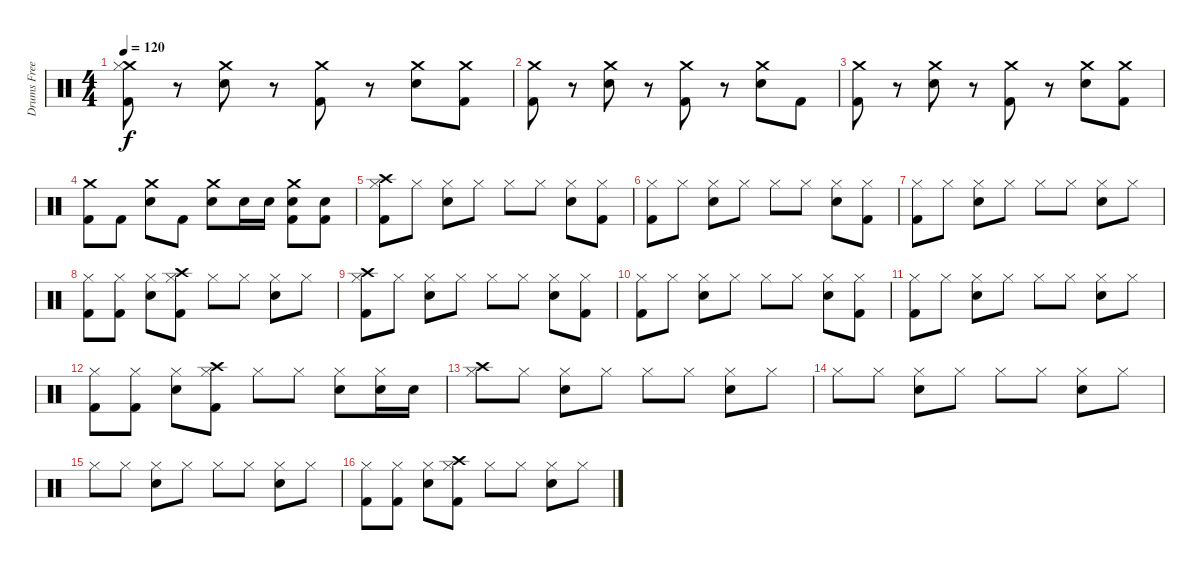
\track ("Drums Freese" "Drums Free") {instrument percussion}
\staff {score}
\articulation defaults
\ts (4 4)
\tempo 120
\clef neutral
\ks c
("Crash medium (hit)" "Hi-Hat (closed)" "Kick (hit) 2").8{dy f} r.8 ("Crash medium (hit)" "Snare (hit) 2").8 r.8 ("Crash medium (hit)" "Kick (hit) 2").8 r.8 ("Crash medium (hit)" "Snare (hit) 2").8 ("Crash medium (hit)" "Kick (hit) 2").8 |
("Crash medium (hit)" "Kick (hit) 2").8 r.8 ("Crash medium (hit)" "Snare (hit) 2").8 r.8 ("Crash medium (hit)" "Kick (hit) 2").8 r.8 ("Crash medium (hit)" "Snare (hit) 2").8 "Kick (hit) 2".8 |
("Crash medium (hit)" "Kick (hit) 2").8 r.8 ("Crash medium (hit)" "Snare (hit) 2").8 r.8 ("Crash medium (hit)" "Kick (hit) 2").8 r.8 ("Crash medium (hit)" "Snare (hit) 2").8 ("Crash medium (hit)" "Kick (hit) 2").8 |
("Crash medium (hit)" "Kick (hit) 2").8 "Kick (hit) 2".8 ("Crash medium (hit)" "Snare (hit) 2").8 "Kick (hit) 2".8 ("Crash medium (hit)" "Snare (hit) 2").8 "Snare (hit) 2".16 "Snare (hit) 2".16 ("Crash medium (hit)" "Snare (hit) 2" "Kick (hit) 2").8 ("Snare (hit) 2" "Kick (hit) 2").8 |
("Hi-Hat (closed)" "Crash high (hit)" "Kick (hit) 2").8 "Hi-Hat (closed)".8 ("Hi-Hat (closed)" "Snare (hit) 2").8 "Hi-Hat (closed)".8 "Hi-Hat (closed)".8 "Hi-Hat (closed)".8 ("Hi-Hat (closed)" "Snare (hit) 2").8 ("Hi-Hat (closed)" "Kick (hit) 2").8 |
("Hi-Hat (closed)" "Kick (hit) 2").8 "Hi-Hat (closed)".8 ("Hi-Hat (closed)" "Snare (hit) 2").8 "Hi-Hat (closed)".8 "Hi-Hat (closed)".8 "Hi-Hat (closed)".8 ("Hi-Hat (closed)" "Snare (hit) 2").8 ("Hi-Hat (closed)" "Kick (hit) 2").8 |
("Hi-Hat (closed)" "Kick (hit) 2").8 "Hi-Hat (closed)".8 ("Hi-Hat (closed)" "Snare (hit) 2").8 "Hi-Hat (closed)".8 "Hi-Hat (closed)".8 "Hi-Hat (closed)".8 ("Hi-Hat (closed)" "Snare (hit) 2").8 "Hi-Hat (closed)".8 |
("Hi-Hat (closed)" "Kick (hit) 2").8 ("Hi-Hat (closed)" "Kick (hit) 2").8 ("Hi-Hat (closed)" "Snare (hit) 2").8 ("Hi-Hat (closed)" "Crash high (hit)" "Kick (hit) 2").8 "Hi-Hat (closed)".8 "Hi-Hat (closed)".8 ("Hi-Hat (closed)" "Snare (hit) 2").8 "Hi-Hat (closed)".8 |
("Hi-Hat (closed)" "Crash high (hit)" "Kick (hit) 2").8 "Hi-Hat (closed)".8 ("Hi-Hat (closed)" "Snare (hit) 2").8 "Hi-Hat (closed)".8 "Hi-Hat (closed)".8 "Hi-Hat (closed)".8 ("Hi-Hat (closed)" "Snare (hit) 2").8 ("Hi-Hat (closed)" "Kick (hit) 2").8 |
("Hi-Hat (closed)" "Kick (hit) 2").8 "Hi-Hat (closed)".8 ("Hi-Hat (closed)" "Snare (hit) 2").8 "Hi-Hat (closed)".8 "Hi-Hat (closed)".8 "Hi-Hat (closed)".8 ("Hi-Hat (closed)" "Snare (hit) 2").8 ("Hi-Hat (closed)" "Kick (hit) 2").8 |
("Hi-Hat (closed)" "Kick (hit) 2").8 "Hi-Hat (closed)".8 ("Hi-Hat (closed)" "Snare (hit) 2").8 "Hi-Hat (closed)".8 "Hi-Hat (closed)".8 "Hi-Hat (closed)".8 ("Hi-Hat (closed)" "Snare (hit) 2").8 "Hi-Hat (closed)".8 |
("Hi-Hat (closed)" "Kick (hit) 2").8 ("Hi-Hat (closed)" "Kick (hit) 2").8 ("Hi-Hat (closed)" "Snare (hit) 2").8 ("Hi-Hat (closed)" "Crash high (hit)" "Kick (hit) 2").8 "Hi-Hat (closed)".8 "Hi-Hat (closed)".8 ("Hi-Hat (closed)" "Snare (hit) 2").8 ("Hi-Hat (closed)" "Snare (hit) 2").16 "Snare (hit) 2".16 |
("Hi-Hat (closed)" "Crash high (hit)").8 "Hi-Hat (closed)".8 ("Hi-Hat (closed)" "Snare (hit) 2").8 "Hi-Hat (closed)".8 "Hi-Hat (closed)".8 "Hi-Hat (closed)".8 ("Hi-Hat (closed)" "Snare (hit) 2").8 "Hi-Hat (closed)".8 |
"Hi-Hat (closed)".8 "Hi-Hat (closed)".8 ("Hi-Hat (closed)" "Snare (hit) 2").8 "Hi-Hat (closed)".8 "Hi-Hat (closed)".8 "Hi-Hat (closed)".8 ("Hi-Hat (closed)" "Snare (hit) 2").8 "Hi-Hat (closed)".8 |
"Hi-Hat (closed)".8 "Hi-Hat (closed)".8 ("Hi-Hat (closed)" "Snare (hit) 2").8 "Hi-Hat (closed)".8 "Hi-Hat (closed)".8 "Hi-Hat (closed)".8 ("Hi-Hat (closed)" "Snare (hit) 2").8 "Hi-Hat (closed)".8 |
("Hi-Hat (closed)" "Kick (hit) 2").8 ("Hi-Hat (closed)" "Kick (hit) 2").8 ("Hi-Hat (closed)" "Snare (hit) 2").8 ("Hi-Hat (closed)" "Crash high (hit)" "Kick (hit) 2").8 "Hi-Hat (closed)".8 "Hi-Hat (closed)".8 ("Hi-Hat (closed)" "Snare (hit) 2").8 "Hi-Hat (closed)".8
